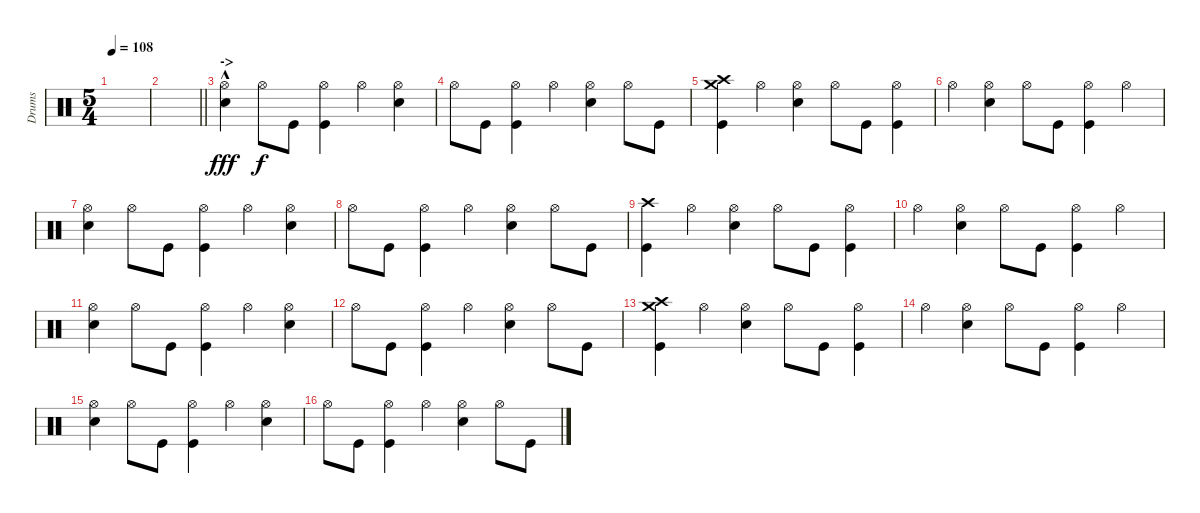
\track ("Drums" "Drums") {instrument percussion}
\staff {score}
\articulation defaults
\ts (5 4)
\tempo 108
\clef neutral
\ks c
|
\barLineRight lightlight
|
\section ("" "->")
("Electric Snare (hit)"{hac} "Hi-Hat (open)").4{dy fff} "Hi-Hat (open)".8{dy f} "Kick (hit)".8 ("Kick (hit)" "Hi-Hat (open)").4 "Hi-Hat (open)".4 ("Electric Snare (hit)" "Hi-Hat (open)").4 |
"Hi-Hat (open)".8 "Kick (hit)".8 ("Kick (hit)" "Hi-Hat (open)").4 "Hi-Hat (open)".4 ("Electric Snare (hit)" "Hi-Hat (open)").4 "Hi-Hat (open)".8 "Kick (hit)".8 |
("Kick (hit)" "Crash high (hit)" "Crash medium (hit)").4 "Hi-Hat (open)".4 ("Electric Snare (hit)" "Hi-Hat (open)").4 "Hi-Hat (open)".8 "Kick (hit)".8 ("Kick (hit)" "Hi-Hat (open)").4 |
"Hi-Hat (open)".4 ("Electric Snare (hit)" "Hi-Hat (open)").4 "Hi-Hat (open)".8 "Kick (hit)".8 ("Kick (hit)" "Hi-Hat (open)").4 "Hi-Hat (open)".4 |
("Electric Snare (hit)" "Hi-Hat (open)").4 "Hi-Hat (open)".8 "Kick (hit)".8 ("Kick (hit)" "Hi-Hat (open)").4 "Hi-Hat (open)".4 ("Electric Snare (hit)" "Hi-Hat (open)").4 |
"Hi-Hat (open)".8 "Kick (hit)".8 ("Kick (hit)" "Hi-Hat (open)").4 "Hi-Hat (open)".4 ("Electric Snare (hit)" "Hi-Hat (open)").4 "Hi-Hat (open)".8 "Kick (hit)".8 |
("Kick (hit)" "Crash high (hit)").4 "Hi-Hat (open)".4 ("Electric Snare (hit)" "Hi-Hat (open)").4 "Hi-Hat (open)".8 "Kick (hit)".8 ("Kick (hit)" "Hi-Hat (open)").4 |
"Hi-Hat (open)".4 ("Electric Snare (hit)" "Hi-Hat (open)").4 "Hi-Hat (open)".8 "Kick (hit)".8 ("Kick (hit)" "Hi-Hat (open)").4 "Hi-Hat (open)".4 |
("Electric Snare (hit)" "Hi-Hat (open)").4 "Hi-Hat (open)".8 "Kick (hit)".8 ("Kick (hit)" "Hi-Hat (open)").4 "Hi-Hat (open)".4 ("Electric Snare (hit)" "Hi-Hat (open)").4 |
"Hi-Hat (open)".8 "Kick (hit)".8 ("Kick (hit)" "Hi-Hat (open)").4 "Hi-Hat (open)".4 ("Electric Snare (hit)" "Hi-Hat (open)").4 "Hi-Hat (open)".8 "Kick (hit)".8 |
("Kick (hit)" "Crash high (hit)" "Crash medium (hit)").4 "Hi-Hat (open)".4 ("Electric Snare (hit)" "Hi-Hat (open)").4 "Hi-Hat (open)".8 "Kick (hit)".8 ("Kick (hit)" "Hi-Hat (open)").4 |
"Hi-Hat (open)".4 ("Electric Snare (hit)" "Hi-Hat (open)").4 "Hi-Hat (open)".8 "Kick (hit)".8 ("Kick (hit)" "Hi-Hat (open)").4 "Hi-Hat (open)".4 |
("Electric Snare (hit)" "Hi-Hat (open)").4 "Hi-Hat (open)".8 "Kick (hit)".8 ("Kick (hit)" "Hi-Hat (open)").4 "Hi-Hat (open)".4 ("Electric Snare (hit)" "Hi-Hat (open)").4 |
"Hi-Hat (open)".8 "Kick (hit)".8 ("Kick (hit)" "Hi-Hat (open)").4 "Hi-Hat (open)".4 ("Electric Snare (hit)" "Hi-Hat (open)").4 "Hi-Hat (open)".8 "Kick (hit)".8
